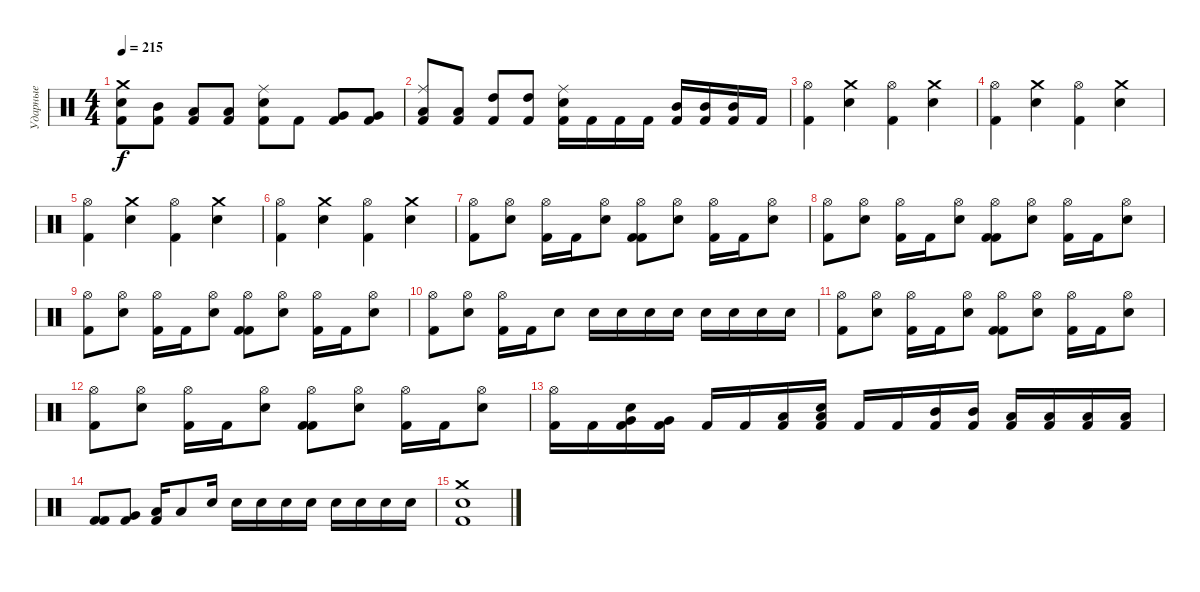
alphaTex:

\track ("Ударные" "Ударные") {instrument percussion}
\staff {score}
\articulation defaults
\ts (4 4)
\tempo 215
\clef neutral
\ks c
("Crash medium (hit)" "Snare (hit) 2" "Kick (hit) 2").8{dy f} ("Mid Tom (hit)" "Kick (hit) 2").8 ("Low Tom (hit)" "Kick (hit) 2").8 ("Low Tom (hit)" "Kick (hit) 2").8 ("Ride (middle)" "Snare (hit) 2" "Kick (hit) 2").8 "Kick (hit) 2".8 ("Very Low Tom (hit)" "Kick (hit) 2").8 ("Very Low Tom (hit)" "Kick (hit) 2").8 |
("Ride (middle)" "Low Floor Tom (hit)" "Kick (hit) 2").8 ("Low Floor Tom (hit)" "Kick (hit) 2").8 ("High Tom (hit)" "Kick (hit) 2").8 ("High Tom (hit)" "Kick (hit) 2").8 ("Ride (middle)" "Snare (hit) 2" "Kick (hit) 2").16 "Kick (hit) 2".16 "Kick (hit) 2".16 "Kick (hit) 2".16 ("Mid Tom (hit)" "Kick (hit) 2").16 ("Mid Tom (hit)" "Kick (hit) 2").16 ("Mid Tom (hit)" "Kick (hit) 2").16 "Kick (hit) 2".16 |
("Kick (hit) 2" "Hi-Hat (open)").4 ("Electric Snare (hit)" "Crash medium (hit)").4 ("Kick (hit) 2" "Hi-Hat (open)").4 ("Electric Snare (hit)" "Crash medium (hit)").4 |
("Kick (hit) 2" "Hi-Hat (open)").4 ("Electric Snare (hit)" "Crash medium (hit)").4 ("Kick (hit) 2" "Hi-Hat (open)").4 ("Electric Snare (hit)" "Crash medium (hit)").4 |
("Kick (hit) 2" "Hi-Hat (open)").4 ("Electric Snare (hit)" "Crash medium (hit)").4 ("Kick (hit) 2" "Hi-Hat (open)").4 ("Electric Snare (hit)" "Crash medium (hit)").4 |
("Kick (hit) 2" "Hi-Hat (open)").4 ("Electric Snare (hit)" "Crash medium (hit)").4 ("Kick (hit) 2" "Hi-Hat (open)").4 ("Electric Snare (hit)" "Crash medium (hit)").4 |
("Kick (hit) 2" "Hi-Hat (open)").8 ("Hi-Hat (open)" "Electric Snare (hit)").8 ("Kick (hit) 2" "Hi-Hat (open)").16 "Kick (hit) 2".16 ("Hi-Hat (open)" "Electric Snare (hit)").8 ("Kick (hit) 2" "Kick (hit) 2" "Hi-Hat (open)").8 ("Hi-Hat (open)" "Electric Snare (hit)").8 ("Kick (hit) 2" "Hi-Hat (open)").16 "Kick (hit) 2".16 ("Hi-Hat (open)" "Electric Snare (hit)").8 |
("Kick (hit) 2" "Hi-Hat (open)").8 ("Hi-Hat (open)" "Electric Snare (hit)").8 ("Kick (hit) 2" "Hi-Hat (open)").16 "Kick (hit) 2".16 ("Hi-Hat (open)" "Electric Snare (hit)").8 ("Kick (hit) 2" "Kick (hit) 2" "Hi-Hat (open)").8 ("Hi-Hat (open)" "Electric Snare (hit)").8 ("Kick (hit) 2" "Hi-Hat (open)").16 "Kick (hit) 2".16 ("Hi-Hat (open)" "Electric Snare (hit)").8 |
("Kick (hit) 2" "Hi-Hat (open)").8 ("Hi-Hat (open)" "Electric Snare (hit)").8 ("Kick (hit) 2" "Hi-Hat (open)").16 "Kick (hit) 2".16 ("Hi-Hat (open)" "Electric Snare (hit)").8 ("Kick (hit) 2" "Kick (hit) 2" "Hi-Hat (open)").8 ("Hi-Hat (open)" "Electric Snare (hit)").8 ("Kick (hit) 2" "Hi-Hat (open)").16 "Kick (hit) 2".16 ("Hi-Hat (open)" "Electric Snare (hit)").8 |
("Kick (hit) 2" "Hi-Hat (open)").8 ("Hi-Hat (open)" "Electric Snare (hit)").8 ("Kick (hit) 2" "Hi-Hat (open)").16 "Kick (hit) 2".16 "Electric Snare (hit)".8 "Electric Snare (hit)".16 "Electric Snare (hit)".16 "Electric Snare (hit)".16 "Electric Snare (hit)".16 "Electric Snare (hit)".16 "Electric Snare (hit)".16 "Electric Snare (hit)".16 "Electric Snare (hit)".16 |
("Kick (hit) 2" "Hi-Hat (open)").8 ("Hi-Hat (open)" "Electric Snare (hit)").8 ("Kick (hit) 2" "Hi-Hat (open)").16 "Kick (hit) 2".16 ("Hi-Hat (open)" "Electric Snare (hit)").8 ("Kick (hit) 2" "Kick (hit) 2" "Hi-Hat (open)").8 ("Hi-Hat (open)" "Electric Snare (hit)").8 ("Kick (hit) 2" "Hi-Hat (open)").16 "Kick (hit) 2".16 ("Hi-Hat (open)" "Electric Snare (hit)").8 |
("Kick (hit) 2" "Hi-Hat (open)").8 ("Hi-Hat (open)" "Electric Snare (hit)").8 ("Kick (hit) 2" "Hi-Hat (open)").16 "Kick (hit) 2".16 ("Hi-Hat (open)" "Electric Snare (hit)").8 ("Kick (hit) 2" "Kick (hit) 2" "Hi-Hat (open)").8 ("Hi-Hat (open)" "Electric Snare (hit)").8 ("Kick (hit) 2" "Hi-Hat (open)").16 "Kick (hit) 2".16 ("Hi-Hat (open)" "Electric Snare (hit)").8 |
("Kick (hit) 2" "Hi-Hat (open)").16 "Kick (hit) 2".16 ("Kick (hit) 2" "Very Low Tom (hit)" "Electric Snare (hit)").16 ("Kick (hit) 2" "Very Low Tom (hit)").16 "Kick (hit) 2".16 "Kick (hit) 2".16 ("Kick (hit) 2" "Low Tom (hit)").16 ("Kick (hit) 2" "Low Tom (hit)" "Electric Snare (hit)").16 "Kick (hit) 2".16 "Kick (hit) 2".16 ("Kick (hit) 2" "Mid Tom (hit)").16 ("Kick (hit) 2" "Mid Tom (hit)").16 ("Kick (hit) 2" "Low Tom (hit)").16 ("Kick (hit) 2" "Low Tom (hit)").16 ("Kick (hit) 2" "Low Tom (hit)").16 ("Kick (hit) 2" "Low Tom (hit)").16 |
("Kick (hit) 2" "Kick (hit) 2").8 ("Kick (hit) 2" "Very Low Tom (hit)").8 ("Kick (hit) 2" "Low Tom (hit)").16 "Low Tom (hit)".8 "Electric Snare (hit)".16 "Electric Snare (hit)".16 "Electric Snare (hit)".16 "Electric Snare (hit)".16 "Electric Snare (hit)".16 "Electric Snare (hit)".16 "Electric Snare (hit)".16 "Electric Snare (hit)".16 "Electric Snare (hit)".16 |
("Kick (hit) 2" "Crash medium (hit)" "Electric Snare (hit)").1
